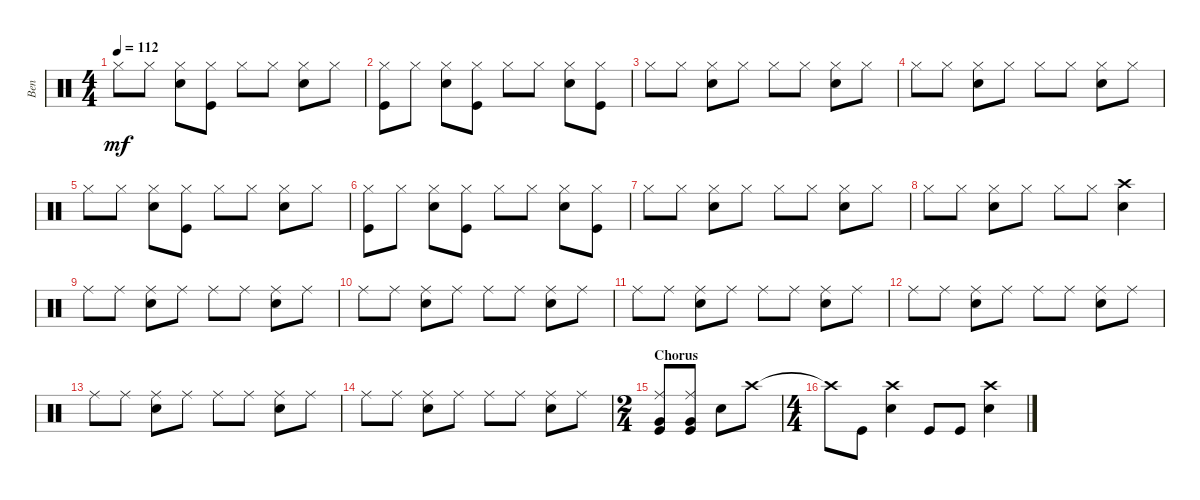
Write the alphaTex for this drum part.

\track ("Ben" "Ben") {instrument percussion}
\staff {score}
\articulation defaults
\ts (4 4)
\tempo 112
\clef neutral
\ks c "Hi-Hat (closed)".8{dy mf} "Hi-Hat (closed)".8
("Hi-Hat (closed)" "Snare (hit) 2").8 ("Hi-Hat (closed)" "Kick (hit)").8 "Hi-Hat (closed)".8 "Hi-Hat (closed)".8 ("Hi-Hat (closed)" "Snare (hit) 2").8 "Hi-Hat (closed)".8 |
("Hi-Hat (closed)" "Kick (hit)").8 "Hi-Hat (closed)".8 ("Hi-Hat (closed)" "Snare (hit) 2").8 ("Hi-Hat (closed)" "Kick (hit)").8 "Hi-Hat (closed)".8 "Hi-Hat (closed)".8 ("Hi-Hat (closed)" "Snare (hit) 2").8 ("Hi-Hat (closed)" "Kick (hit)").8 |
"Hi-Hat (closed)".8 "Hi-Hat (closed)".8 ("Hi-Hat (closed)" "Snare (hit) 2").8 "Hi-Hat (closed)".8 "Hi-Hat (closed)".8 "Hi-Hat (closed)".8 ("Hi-Hat (closed)" "Snare (hit) 2").8 "Hi-Hat (closed)".8 |
"Hi-Hat (closed)".8 "Hi-Hat (closed)".8 ("Hi-Hat (closed)" "Snare (hit) 2").8 "Hi-Hat (closed)".8 "Hi-Hat (closed)".8 "Hi-Hat (closed)".8 ("Hi-Hat (closed)" "Snare (hit) 2").8 "Hi-Hat (closed)".8 |
"Hi-Hat (closed)".8 "Hi-Hat (closed)".8 ("Hi-Hat (closed)" "Snare (hit) 2").8 ("Hi-Hat (closed)" "Kick (hit)").8 "Hi-Hat (closed)".8 "Hi-Hat (closed)".8 ("Hi-Hat (closed)" "Snare (hit) 2").8 "Hi-Hat (closed)".8 |
("Hi-Hat (closed)" "Kick (hit)").8 "Hi-Hat (closed)".8 ("Hi-Hat (closed)" "Snare (hit) 2").8 ("Hi-Hat (closed)" "Kick (hit)").8 "Hi-Hat (closed)".8 "Hi-Hat (closed)".8 ("Hi-Hat (closed)" "Snare (hit) 2").8 ("Hi-Hat (closed)" "Kick (hit)").8 |
"Hi-Hat (closed)".8 "Hi-Hat (closed)".8 ("Hi-Hat (closed)" "Snare (hit) 2").8 "Hi-Hat (closed)".8 "Hi-Hat (closed)".8 "Hi-Hat (closed)".8 ("Hi-Hat (closed)" "Snare (hit) 2").8 "Hi-Hat (closed)".8 |
"Hi-Hat (closed)".8 "Hi-Hat (closed)".8 ("Hi-Hat (closed)" "Snare (hit) 2").8 "Hi-Hat (closed)".8 "Hi-Hat (closed)".8 "Hi-Hat (closed)".8 ("Snare (hit) 2" "Crash high (hit)").4 |
"Ride (middle)".8 "Ride (middle)".8 ("Ride (middle)" "Snare (hit) 2").8 "Ride (middle)".8 "Ride (middle)".8 "Ride (middle)".8 ("Ride (middle)" "Snare (hit) 2").8 "Ride (middle)".8 |
"Ride (middle)".8 "Ride (middle)".8 ("Ride (middle)" "Snare (hit) 2").8 "Ride (middle)".8 "Ride (middle)".8 "Ride (middle)".8 ("Ride (middle)" "Snare (hit) 2").8 "Ride (middle)".8 |
"Ride (middle)".8 "Ride (middle)".8 ("Ride (middle)" "Snare (hit) 2").8 "Ride (middle)".8 "Ride (middle)".8 "Ride (middle)".8 ("Ride (middle)" "Snare (hit) 2").8 "Ride (middle)".8 |
"Ride (middle)".8 "Ride (middle)".8 ("Ride (middle)" "Snare (hit) 2").8 "Ride (middle)".8 "Ride (middle)".8 "Ride (middle)".8 ("Ride (middle)" "Snare (hit) 2").8 "Ride (middle)".8 |
"Ride (middle)".8 "Ride (middle)".8 ("Ride (middle)" "Snare (hit) 2").8 "Ride (middle)".8 "Ride (middle)".8 "Ride (middle)".8 ("Ride (middle)" "Snare (hit) 2").8 "Ride (middle)".8 |
"Ride (middle)".8 "Ride (middle)".8 ("Ride (middle)" "Snare (hit) 2").8 "Ride (middle)".8 "Ride (middle)".8 "Ride (middle)".8 ("Ride (middle)" "Snare (hit) 2").8 "Ride (middle)".8 |
\ts (2 4)
\section ("" "Chorus")
("Kick (hit)" "Ride (middle)" "Very Low Tom (hit)").8 ("Kick (hit)" "Ride (middle)" "Very Low Tom (hit)").8 "Snare (hit) 2".8 "Crash high (hit)".8 |
\ts (4 4)
"Crash high (hit)"{t}.8 "Kick (hit)".8 ("Snare (hit) 2" "Crash high (hit)").4 "Kick (hit)".8 "Kick (hit)".8 ("Snare (hit) 2" "Crash high (hit)").4
